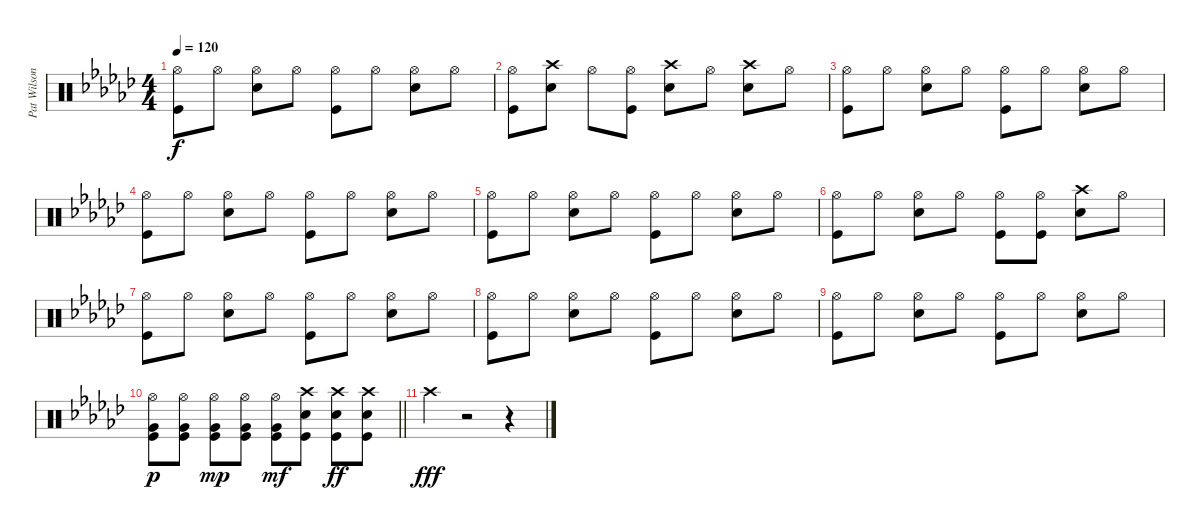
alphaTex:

\track ("Pat Wilson" "Pat Wilson") {instrument percussion}
\staff {score}
\articulation defaults
\ts (4 4)
\tempo 120
\clef neutral
\ks gb
("Hi-Hat (open)" "Kick (hit)").8{dy f} "Hi-Hat (open)".8 ("Hi-Hat (open)" "Snare (hit) 2").8 "Hi-Hat (open)".8 ("Hi-Hat (open)" "Kick (hit)").8 "Hi-Hat (open)".8 ("Hi-Hat (open)" "Snare (hit) 2").8 "Hi-Hat (open)".8 |
("Hi-Hat (open)" "Kick (hit)").8 ("Crash high (hit)" "Snare (hit) 2").8 "Hi-Hat (open)".8 ("Hi-Hat (open)" "Kick (hit)").8 ("Crash high (hit)" "Snare (hit) 2").8 "Hi-Hat (open)".8 ("Crash high (hit)" "Snare (hit) 2").8 "Hi-Hat (open)".8 |
("Hi-Hat (open)" "Kick (hit)").8 "Hi-Hat (open)".8 ("Hi-Hat (open)" "Snare (hit) 2").8 "Hi-Hat (open)".8 ("Hi-Hat (open)" "Kick (hit)").8 "Hi-Hat (open)".8 ("Hi-Hat (open)" "Snare (hit) 2").8 "Hi-Hat (open)".8 |
("Hi-Hat (open)" "Kick (hit)").8 "Hi-Hat (open)".8 ("Hi-Hat (open)" "Snare (hit) 2").8 "Hi-Hat (open)".8 ("Hi-Hat (open)" "Kick (hit)").8 "Hi-Hat (open)".8 ("Hi-Hat (open)" "Snare (hit) 2").8 "Hi-Hat (open)".8 |
("Hi-Hat (open)" "Kick (hit)").8 "Hi-Hat (open)".8 ("Hi-Hat (open)" "Snare (hit) 2").8 "Hi-Hat (open)".8 ("Hi-Hat (open)" "Kick (hit)").8 "Hi-Hat (open)".8 ("Hi-Hat (open)" "Snare (hit) 2").8 "Hi-Hat (open)".8 |
("Hi-Hat (open)" "Kick (hit)").8 "Hi-Hat (open)".8 ("Hi-Hat (open)" "Snare (hit) 2").8 "Hi-Hat (open)".8 ("Hi-Hat (open)" "Kick (hit)").8 ("Hi-Hat (open)" "Kick (hit)").8 ("Crash high (hit)" "Snare (hit) 2").8 "Hi-Hat (open)".8 |
("Hi-Hat (open)" "Kick (hit)").8 "Hi-Hat (open)".8 ("Hi-Hat (open)" "Snare (hit) 2").8 "Hi-Hat (open)".8 ("Hi-Hat (open)" "Kick (hit)").8 "Hi-Hat (open)".8 ("Hi-Hat (open)" "Snare (hit) 2").8 "Hi-Hat (open)".8 |
("Hi-Hat (open)" "Kick (hit)").8 "Hi-Hat (open)".8 ("Hi-Hat (open)" "Snare (hit) 2").8 "Hi-Hat (open)".8 ("Hi-Hat (open)" "Kick (hit)").8 "Hi-Hat (open)".8 ("Hi-Hat (open)" "Snare (hit) 2").8 "Hi-Hat (open)".8 |
("Hi-Hat (open)" "Kick (hit)").8 "Hi-Hat (open)".8 ("Hi-Hat (open)" "Snare (hit) 2").8 "Hi-Hat (open)".8 ("Hi-Hat (open)" "Kick (hit)").8 "Hi-Hat (open)".8 ("Hi-Hat (open)" "Snare (hit) 2").8 "Hi-Hat (open)".8 |
\barLineRight lightlight
("Hi-Hat (open)" "Very Low Tom (hit)" "Kick (hit)").8{dy p} ("Hi-Hat (open)" "Very Low Tom (hit)" "Kick (hit)").8 ("Hi-Hat (open)" "Very Low Tom (hit)" "Kick (hit)").8{dy mp} ("Hi-Hat (open)" "Very Low Tom (hit)" "Kick (hit)").8 ("Hi-Hat (open)" "Very Low Tom (hit)" "Kick (hit)").8{dy mf} ("Crash high (hit)" "Snare (hit) 2" "Kick (hit)").8 ("Crash high (hit)" "Snare (hit) 2" "Kick (hit)").8{dy ff} ("Crash high (hit)" "Snare (hit) 2" "Kick (hit)").8 |
"Crash high (hit)".4{dy fff} r.2 r.4
